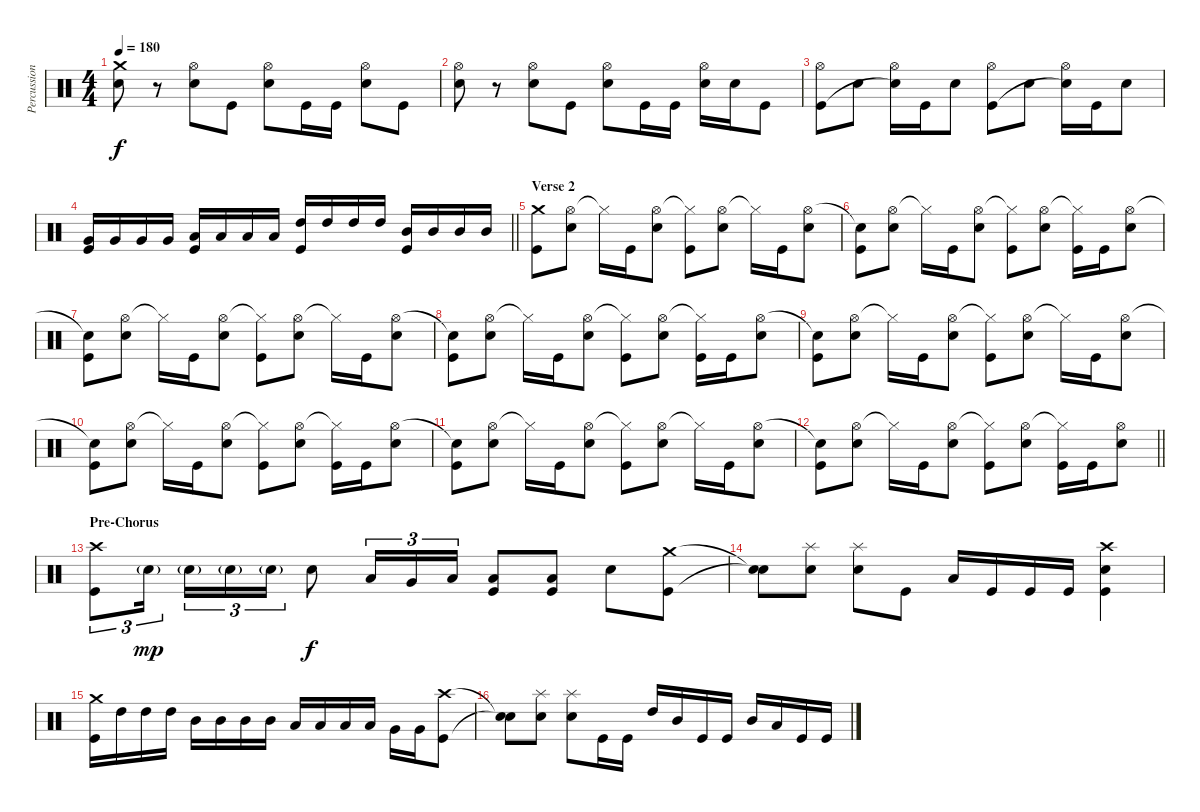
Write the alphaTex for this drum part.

\track ("Percussion" "Percussion") {instrument percussion}
\staff {score}
\articulation defaults
\ts (4 4)
\tempo 180
\clef neutral
\ks c
("Crash medium (hit)" "Electric Snare (hit)").8{dy f} r.8 ("Hi-Hat (open)" "Electric Snare (hit)").8 "Kick (hit)".8 ("Hi-Hat (open)" "Electric Snare (hit)").8 "Kick (hit)".16 "Kick (hit)".16 ("Hi-Hat (open)" "Electric Snare (hit)").8 "Kick (hit)".8 |
("Hi-Hat (open)" "Electric Snare (hit)").8 r.8 ("Hi-Hat (open)" "Electric Snare (hit)").8 "Kick (hit)".8 ("Hi-Hat (open)" "Electric Snare (hit)").8 "Kick (hit)".16 "Kick (hit)".16 ("Hi-Hat (open)" "Electric Snare (hit)").16 "Electric Snare (hit)".16 "Kick (hit)".8 |
("Hi-Hat (open)" "Kick (hit)").8 "Electric Snare (hit)".8 ("Hi-Hat (open)" "Snare (hit)"{t}).16 "Kick (hit)".16 "Electric Snare (hit)".8 ("Hi-Hat (open)" "Kick (hit)").8 "Electric Snare (hit)".8 ("Hi-Hat (open)" "Snare (hit)"{t}).16 "Kick (hit)".16 "Electric Snare (hit)".8 |
\barLineRight lightlight
("Very Low Tom (hit)" "Kick (hit)").16 "Very Low Tom (hit)".16 "Very Low Tom (hit)".16 "Very Low Tom (hit)".16 ("Low Tom (hit)" "Kick (hit)").16 "Low Tom (hit)".16 "Low Tom (hit)".16 "Low Tom (hit)".16 ("High Tom (hit)" "Kick (hit)").16 "High Tom (hit)".16 "High Tom (hit)".16 "High Tom (hit)".16 ("Mid Tom (hit)" "Kick (hit)").16 "Mid Tom (hit)".16 "Mid Tom (hit)".16 "Mid Tom (hit)".16 |
\section ("" "Verse 2")
("Crash medium (hit)" "Kick (hit)").8 ("Hi-Hat (open)" "Electric Snare (hit)").8 "Hi-Hat (closed)"{t}.16 "Kick (hit)".16 ("Hi-Hat (open)" "Electric Snare (hit)").8 ("Hi-Hat (closed)"{t} "Kick (hit)").8 ("Hi-Hat (open)" "Electric Snare (hit)").8 "Hi-Hat (closed)"{t}.16 "Kick (hit)".16 ("Hi-Hat (open)" "Electric Snare (hit)").8 |
("Snare (hit)"{t} "Kick (hit)").8 ("Hi-Hat (open)" "Electric Snare (hit)").8 "Hi-Hat (closed)"{t}.16 "Kick (hit)".16 ("Hi-Hat (open)" "Electric Snare (hit)").8 ("Hi-Hat (closed)"{t} "Kick (hit)").8 ("Hi-Hat (open)" "Electric Snare (hit)").8 ("Hi-Hat (closed)"{t} "Kick (hit)").16 "Kick (hit)".16 ("Hi-Hat (open)" "Electric Snare (hit)").8 |
("Snare (hit)"{t} "Kick (hit)").8 ("Hi-Hat (open)" "Electric Snare (hit)").8 "Hi-Hat (closed)"{t}.16 "Kick (hit)".16 ("Hi-Hat (open)" "Electric Snare (hit)").8 ("Hi-Hat (closed)"{t} "Kick (hit)").8 ("Hi-Hat (open)" "Electric Snare (hit)").8 "Hi-Hat (closed)"{t}.16 "Kick (hit)".16 ("Hi-Hat (open)" "Electric Snare (hit)").8 |
("Snare (hit)"{t} "Kick (hit)").8 ("Hi-Hat (open)" "Electric Snare (hit)").8 "Hi-Hat (closed)"{t}.16 "Kick (hit)".16 ("Hi-Hat (open)" "Electric Snare (hit)").8 ("Hi-Hat (closed)"{t} "Kick (hit)").8 ("Hi-Hat (open)" "Electric Snare (hit)").8 ("Hi-Hat (closed)"{t} "Kick (hit)").16 "Kick (hit)".16 ("Hi-Hat (open)" "Electric Snare (hit)").8 |
("Snare (hit)"{t} "Kick (hit)").8 ("Hi-Hat (open)" "Electric Snare (hit)").8 "Hi-Hat (closed)"{t}.16 "Kick (hit)".16 ("Hi-Hat (open)" "Electric Snare (hit)").8 ("Hi-Hat (closed)"{t} "Kick (hit)").8 ("Hi-Hat (open)" "Electric Snare (hit)").8 "Hi-Hat (closed)"{t}.16 "Kick (hit)".16 ("Hi-Hat (open)" "Electric Snare (hit)").8 |
("Snare (hit)"{t} "Kick (hit)").8 ("Hi-Hat (open)" "Electric Snare (hit)").8 "Hi-Hat (closed)"{t}.16 "Kick (hit)".16 ("Hi-Hat (open)" "Electric Snare (hit)").8 ("Hi-Hat (closed)"{t} "Kick (hit)").8 ("Hi-Hat (open)" "Electric Snare (hit)").8 ("Hi-Hat (closed)"{t} "Kick (hit)").16 "Kick (hit)".16 ("Hi-Hat (open)" "Electric Snare (hit)").8 |
("Snare (hit)"{t} "Kick (hit)").8 ("Hi-Hat (open)" "Electric Snare (hit)").8 "Hi-Hat (closed)"{t}.16 "Kick (hit)".16 ("Hi-Hat (open)" "Electric Snare (hit)").8 ("Hi-Hat (closed)"{t} "Kick (hit)").8 ("Hi-Hat (open)" "Electric Snare (hit)").8 "Hi-Hat (closed)"{t}.16 "Kick (hit)".16 ("Hi-Hat (open)" "Electric Snare (hit)").8 |
\barLineRight lightlight
("Snare (hit)"{t} "Kick (hit)").8 ("Hi-Hat (open)" "Electric Snare (hit)").8 "Hi-Hat (closed)"{t}.16 "Kick (hit)".16 ("Hi-Hat (open)" "Electric Snare (hit)").8 ("Hi-Hat (closed)"{t} "Kick (hit)").8 ("Hi-Hat (open)" "Electric Snare (hit)").8 ("Hi-Hat (closed)"{t} "Kick (hit)").16 "Kick (hit)".16 ("Hi-Hat (open)" "Electric Snare (hit)").8 |
\section ("" "Pre-Chorus")
("Crash high (hit)" "Kick (hit)").8{tu (3 2)} "Electric Snare (hit)"{g}.16{tu (3 2) dy mp beam splitsecondary} "Electric Snare (hit)"{g}.16{tu (3 2)} "Electric Snare (hit)"{g}.16{tu (3 2)} "Electric Snare (hit)"{g}.16{tu (3 2)} "Electric Snare (hit)".8{dy f} "Low Tom (hit)".16{tu (3 2)} "Very Low Tom (hit)".16{tu (3 2)} "Low Floor Tom (hit)".16{tu (3 2)} ("Low Floor Tom (hit)" "Kick (hit)").8 ("Low Floor Tom (hit)" "Kick (hit)").8 "Electric Snare (hit)".8 ("Crash medium (hit)" "Kick (hit)").8 |
("Snare (hit)"{t} "Snare (hit)"{t}).8 ("Splash (hit)" "Electric Snare (hit)").8 ("Splash (hit)" "Electric Snare (hit)").8 "Kick (hit)".8 "Low Floor Tom (hit)".16 "Kick (hit)".16 "Kick (hit)".16 "Kick (hit)".16 ("Crash high (hit)" "Electric Snare (hit)" "Kick (hit)").4 |
("Crash medium (hit)" "Kick (hit)").16 "High Tom (hit)".16 "High Tom (hit)".16 "High Tom (hit)".16 "Mid Tom (hit)".16 "Mid Tom (hit)".16 "Mid Tom (hit)".16 "Mid Tom (hit)".16 "Low Tom (hit)".16 "Low Tom (hit)".16 "Low Tom (hit)".16 "Low Tom (hit)".16 "Very Low Tom (hit)".16 "Very Low Tom (hit)".16 ("Crash high (hit)" "Kick (hit)").8 |
("Snare (hit)"{t} "Snare (hit)"{t}).8 ("Splash (hit)" "Electric Snare (hit)").8 ("Splash (hit)" "Electric Snare (hit)").8 "Kick (hit)".16 "Kick (hit)".16 "High Tom (hit)".16 "Mid Tom (hit)".16 "Kick (hit)".16 "Kick (hit)".16 "Mid Tom (hit)".16 "Low Tom (hit)".16 "Kick (hit)".16 "Kick (hit)".16
